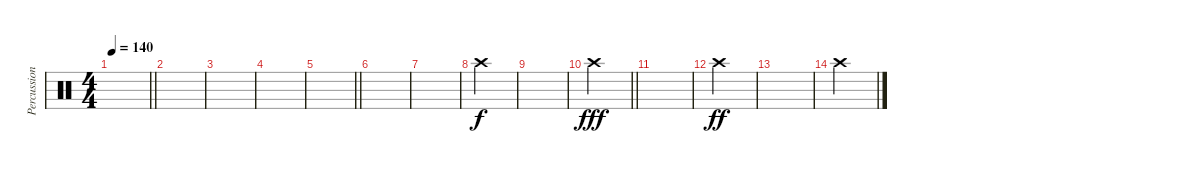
\track ("Percussions" "Percussion") {instrument percussion}
\staff {score}
\articulation defaults
\ts (4 4)
\tempo 140
\clef neutral
\barLineRight lightlight
\ks c
|
|
|
|
\barLineRight lightlight
|
|
|
"Crash high (hit)".4 |
|
\barLineRight lightlight "Crash high (hit)".4{dy fff}
|
|
"Crash high (hit)".4{dy ff} |
|
"Crash high (hit)".4
